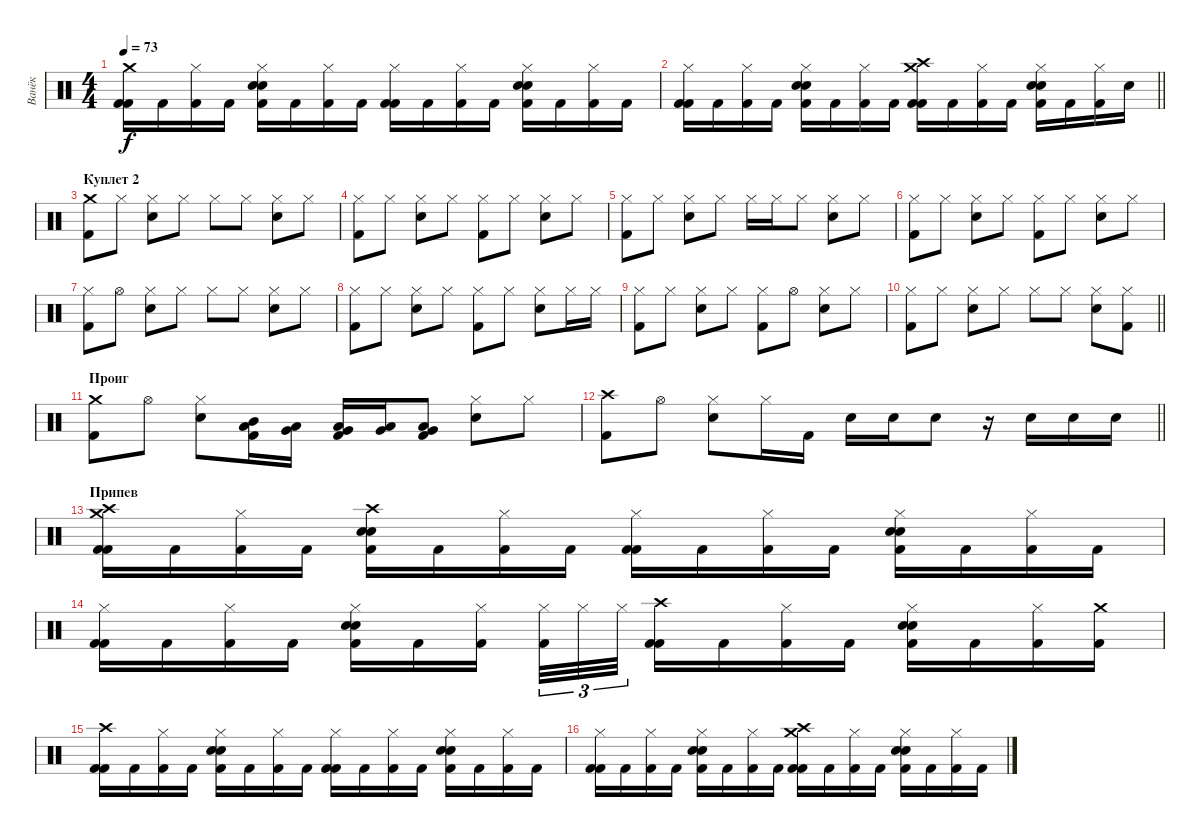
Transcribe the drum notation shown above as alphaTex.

\track ("Ванёк" "Ванёк") {instrument percussion}
\staff {score}
\articulation defaults
\ts (4 4)
\tempo 73
\clef neutral
\ks c
("Crash medium (hit)" "Kick (hit) 2" "Kick (hit) 2").16{dy f} "Kick (hit) 2".16 ("Hi-Hat (closed)" "Kick (hit) 2").16 "Kick (hit) 2".16 ("Hi-Hat (closed)" "Snare (hit) 2" "Snare (hit) 2" "Kick (hit) 2").16 "Kick (hit) 2".16 ("Hi-Hat (closed)" "Kick (hit) 2").16 "Kick (hit) 2".16 ("Hi-Hat (closed)" "Kick (hit) 2" "Kick (hit) 2").16 "Kick (hit) 2".16 ("Hi-Hat (closed)" "Kick (hit) 2").16 "Kick (hit) 2".16 ("Hi-Hat (closed)" "Snare (hit) 2" "Snare (hit) 2" "Kick (hit) 2").16 "Kick (hit) 2".16 ("Hi-Hat (closed)" "Kick (hit) 2").16 "Kick (hit) 2".16 |
\barLineRight lightlight
("Hi-Hat (closed)" "Kick (hit) 2" "Kick (hit) 2").16 "Kick (hit) 2".16 ("Hi-Hat (closed)" "Kick (hit) 2").16 "Kick (hit) 2".16 ("Hi-Hat (closed)" "Snare (hit) 2" "Snare (hit) 2" "Kick (hit) 2").16 "Kick (hit) 2".16 ("Hi-Hat (closed)" "Kick (hit) 2").16 "Kick (hit) 2".16 ("Crash high (hit)" "Crash medium (hit)" "Kick (hit) 2" "Kick (hit) 2").16 "Kick (hit) 2".16 ("Hi-Hat (closed)" "Kick (hit) 2").16 "Kick (hit) 2".16 ("Hi-Hat (closed)" "Snare (hit) 2" "Snare (hit) 2" "Kick (hit) 2").16 "Kick (hit) 2".16 ("Hi-Hat (closed)" "Kick (hit) 2").16 "Snare (hit) 2".16 |
\section ("" "Куплет 2")
("Crash medium (hit)" "Kick (hit) 2").8 "Hi-Hat (closed)".8 ("Hi-Hat (closed)" "Snare (hit) 2").8 "Hi-Hat (closed)".8 "Hi-Hat (closed)".8 "Hi-Hat (closed)".8 ("Hi-Hat (closed)" "Snare (hit) 2").8 "Hi-Hat (closed)".8 |
("Hi-Hat (closed)" "Kick (hit) 2").8 "Hi-Hat (closed)".8 ("Hi-Hat (closed)" "Snare (hit) 2").8 "Hi-Hat (closed)".8 ("Hi-Hat (closed)" "Kick (hit) 2").8 "Hi-Hat (closed)".8 ("Hi-Hat (closed)" "Snare (hit) 2").8 "Hi-Hat (closed)".8 |
("Hi-Hat (closed)" "Kick (hit) 2").8 "Hi-Hat (closed)".8 ("Hi-Hat (closed)" "Snare (hit) 2").8 "Hi-Hat (closed)".8 "Hi-Hat (closed)".16 "Hi-Hat (closed)".16 "Hi-Hat (closed)".8 ("Hi-Hat (closed)" "Snare (hit) 2").8 "Hi-Hat (closed)".8 |
("Hi-Hat (closed)" "Kick (hit) 2").8 "Hi-Hat (closed)".8 ("Hi-Hat (closed)" "Snare (hit) 2").8 "Hi-Hat (closed)".8 ("Hi-Hat (closed)" "Kick (hit) 2").8 "Hi-Hat (closed)".8 ("Hi-Hat (closed)" "Snare (hit) 2").8 "Hi-Hat (closed)".8 |
("Hi-Hat (closed)" "Kick (hit) 2").8 "Hi-Hat (open)".8 ("Hi-Hat (closed)" "Snare (hit) 2").8 "Hi-Hat (closed)".8 "Hi-Hat (closed)".8 "Hi-Hat (closed)".8 ("Hi-Hat (closed)" "Snare (hit) 2").8 "Hi-Hat (closed)".8 |
("Hi-Hat (closed)" "Kick (hit) 2").8 "Hi-Hat (closed)".8 ("Hi-Hat (closed)" "Snare (hit) 2").8 "Hi-Hat (closed)".8 ("Hi-Hat (closed)" "Kick (hit) 2").8 "Hi-Hat (closed)".8 ("Hi-Hat (closed)" "Snare (hit) 2").8 "Hi-Hat (closed)".16 "Hi-Hat (closed)".16 |
("Hi-Hat (closed)" "Kick (hit) 2").8 "Hi-Hat (closed)".8 ("Hi-Hat (closed)" "Snare (hit) 2").8 "Hi-Hat (closed)".8 ("Hi-Hat (closed)" "Kick (hit) 2").8 "Hi-Hat (open)".8 ("Hi-Hat (closed)" "Snare (hit) 2").8 "Hi-Hat (closed)".8 |
\barLineRight lightlight
("Hi-Hat (closed)" "Kick (hit) 2").8 "Hi-Hat (closed)".8 ("Hi-Hat (closed)" "Snare (hit) 2").8 "Hi-Hat (closed)".8 "Hi-Hat (closed)".8 "Hi-Hat (closed)".8 ("Hi-Hat (closed)" "Snare (hit) 2").8 ("Hi-Hat (closed)" "Kick (hit) 2").8 |
\section ("" "Проиг")
("Crash medium (hit)" "Kick (hit) 2").8 "Hi-Hat (open)".8 ("Hi-Hat (closed)" "Snare (hit) 2").8 ("Mid Tom (hit)" "Low Tom (hit)" "Kick (hit) 2").16 ("Low Tom (hit)" "Very Low Tom (hit)").16 ("Very Low Tom (hit)" "Low Floor Tom (hit)" "Kick (hit) 2").16 ("Low Tom (hit)" "Very Low Tom (hit)").16 ("Very Low Tom (hit)" "Low Floor Tom (hit)" "Kick (hit) 2").8 ("Hi-Hat (closed)" "Snare (hit) 2").8 "Hi-Hat (closed)".8 |
\barLineRight lightlight
("Crash high (hit)" "Kick (hit) 2").8 "Hi-Hat (open)".8 ("Hi-Hat (closed)" "Snare (hit) 2").8 "Hi-Hat (closed)".16 "Kick (hit) 2".16 "Snare (hit) 2".16 "Snare (hit) 2".16 "Snare (hit) 2".8 r.16 "Snare (hit) 2".16 "Snare (hit) 2".16 "Snare (hit) 2".16 |
\section ("" "Припев")
("Crash high (hit)" "Crash medium (hit)" "Kick (hit) 2" "Kick (hit) 2").16 "Kick (hit) 2".16 ("Hi-Hat (closed)" "Kick (hit) 2").16 "Kick (hit) 2".16 ("Crash high (hit)" "Snare (hit) 2" "Snare (hit) 2" "Kick (hit) 2").16 "Kick (hit) 2".16 ("Hi-Hat (closed)" "Kick (hit) 2").16 "Kick (hit) 2".16 ("Hi-Hat (closed)" "Kick (hit) 2" "Kick (hit) 2").16 "Kick (hit) 2".16 ("Hi-Hat (closed)" "Kick (hit) 2").16 "Kick (hit) 2".16 ("Hi-Hat (closed)" "Snare (hit) 2" "Snare (hit) 2" "Kick (hit) 2").16 "Kick (hit) 2".16 ("Hi-Hat (closed)" "Kick (hit) 2").16 "Kick (hit) 2".16 |
("Hi-Hat (closed)" "Kick (hit) 2" "Kick (hit) 2").16 "Kick (hit) 2".16 ("Hi-Hat (closed)" "Kick (hit) 2").16 "Kick (hit) 2".16 ("Hi-Hat (closed)" "Snare (hit) 2" "Snare (hit) 2" "Kick (hit) 2").16 "Kick (hit) 2".16 ("Hi-Hat (closed)" "Kick (hit) 2").16{beam splitsecondary} ("Hi-Hat (closed)" "Kick (hit) 2").32{tu (3 2)} "Hi-Hat (closed)".32{tu (3 2)} "Hi-Hat (closed)".32{tu (3 2)} ("Crash high (hit)" "Kick (hit) 2" "Kick (hit) 2").16 "Kick (hit) 2".16 ("Hi-Hat (closed)" "Kick (hit) 2").16 "Kick (hit) 2".16 ("Hi-Hat (closed)" "Snare (hit) 2" "Snare (hit) 2" "Kick (hit) 2").16 "Kick (hit) 2".16 ("Hi-Hat (closed)" "Kick (hit) 2").16 ("Crash medium (hit)" "Kick (hit) 2").16 |
("Crash high (hit)" "Kick (hit) 2" "Kick (hit) 2").16 "Kick (hit) 2".16 ("Hi-Hat (closed)" "Kick (hit) 2").16 "Kick (hit) 2".16 ("Hi-Hat (closed)" "Snare (hit) 2" "Snare (hit) 2" "Kick (hit) 2").16 "Kick (hit) 2".16 ("Hi-Hat (closed)" "Kick (hit) 2").16 "Kick (hit) 2".16 ("Hi-Hat (closed)" "Kick (hit) 2" "Kick (hit) 2").16 "Kick (hit) 2".16 ("Hi-Hat (closed)" "Kick (hit) 2").16 "Kick (hit) 2".16 ("Hi-Hat (closed)" "Snare (hit) 2" "Snare (hit) 2" "Kick (hit) 2").16 "Kick (hit) 2".16 ("Hi-Hat (closed)" "Kick (hit) 2").16 "Kick (hit) 2".16 |
("Hi-Hat (closed)" "Kick (hit) 2" "Kick (hit) 2").16 "Kick (hit) 2".16 ("Hi-Hat (closed)" "Kick (hit) 2").16 "Kick (hit) 2".16 ("Hi-Hat (closed)" "Snare (hit) 2" "Snare (hit) 2" "Kick (hit) 2").16 "Kick (hit) 2".16 ("Hi-Hat (closed)" "Kick (hit) 2").16 "Kick (hit) 2".16 ("Crash high (hit)" "Crash medium (hit)" "Kick (hit) 2" "Kick (hit) 2").16 "Kick (hit) 2".16 ("Hi-Hat (closed)" "Kick (hit) 2").16 "Kick (hit) 2".16 ("Hi-Hat (closed)" "Snare (hit) 2" "Snare (hit) 2" "Kick (hit) 2").16 "Kick (hit) 2".16 ("Hi-Hat (closed)" "Kick (hit) 2").16 "Kick (hit) 2".16
